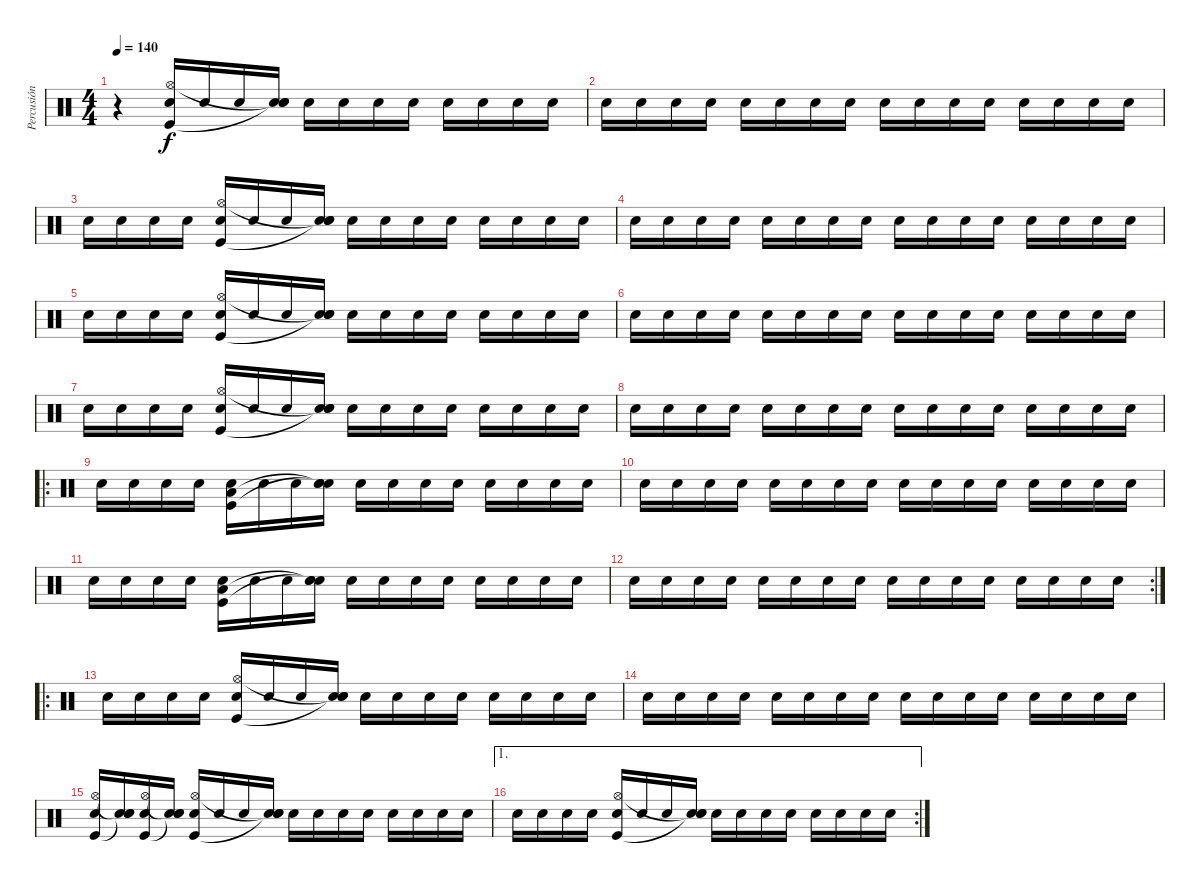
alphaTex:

\track ("Percusión" "Percusión") {instrument percussion}
\staff {score}
\articulation defaults
\ts (4 4)
\tempo 140
\clef neutral
\ks c
r.4{dy f} ("Electric Snare (hit)" "Hi-Hat (open)" "Kick (hit)").16 "Electric Snare (hit)".16 "Electric Snare (hit)".16 ("Electric Snare (hit)" "Snare (hit)"{t} "Snare (hit)"{t}).16 "Electric Snare (hit)".16 "Electric Snare (hit)".16 "Electric Snare (hit)".16 "Electric Snare (hit)".16 "Electric Snare (hit)".16 "Electric Snare (hit)".16 "Electric Snare (hit)".16 "Electric Snare (hit)".16 |
"Electric Snare (hit)".16 "Electric Snare (hit)".16 "Electric Snare (hit)".16 "Electric Snare (hit)".16 "Electric Snare (hit)".16 "Electric Snare (hit)".16 "Electric Snare (hit)".16 "Electric Snare (hit)".16 "Electric Snare (hit)".16 "Electric Snare (hit)".16 "Electric Snare (hit)".16 "Electric Snare (hit)".16 "Electric Snare (hit)".16 "Electric Snare (hit)".16 "Electric Snare (hit)".16 "Electric Snare (hit)".16 |
"Electric Snare (hit)".16 "Electric Snare (hit)".16 "Electric Snare (hit)".16 "Electric Snare (hit)".16 ("Electric Snare (hit)" "Hi-Hat (open)" "Kick (hit)").16 "Electric Snare (hit)".16 "Electric Snare (hit)".16 ("Electric Snare (hit)" "Snare (hit)"{t} "Snare (hit)"{t}).16 "Electric Snare (hit)".16 "Electric Snare (hit)".16 "Electric Snare (hit)".16 "Electric Snare (hit)".16 "Electric Snare (hit)".16 "Electric Snare (hit)".16 "Electric Snare (hit)".16 "Electric Snare (hit)".16 |
"Electric Snare (hit)".16 "Electric Snare (hit)".16 "Electric Snare (hit)".16 "Electric Snare (hit)".16 "Electric Snare (hit)".16 "Electric Snare (hit)".16 "Electric Snare (hit)".16 "Electric Snare (hit)".16 "Electric Snare (hit)".16 "Electric Snare (hit)".16 "Electric Snare (hit)".16 "Electric Snare (hit)".16 "Electric Snare (hit)".16 "Electric Snare (hit)".16 "Electric Snare (hit)".16 "Electric Snare (hit)".16 |
"Electric Snare (hit)".16 "Electric Snare (hit)".16 "Electric Snare (hit)".16 "Electric Snare (hit)".16 ("Electric Snare (hit)" "Hi-Hat (open)" "Kick (hit)").16 "Electric Snare (hit)".16 "Electric Snare (hit)".16 ("Electric Snare (hit)" "Snare (hit)"{t} "Snare (hit)"{t}).16 "Electric Snare (hit)".16 "Electric Snare (hit)".16 "Electric Snare (hit)".16 "Electric Snare (hit)".16 "Electric Snare (hit)".16 "Electric Snare (hit)".16 "Electric Snare (hit)".16 "Electric Snare (hit)".16 |
"Electric Snare (hit)".16 "Electric Snare (hit)".16 "Electric Snare (hit)".16 "Electric Snare (hit)".16 "Electric Snare (hit)".16 "Electric Snare (hit)".16 "Electric Snare (hit)".16 "Electric Snare (hit)".16 "Electric Snare (hit)".16 "Electric Snare (hit)".16 "Electric Snare (hit)".16 "Electric Snare (hit)".16 "Electric Snare (hit)".16 "Electric Snare (hit)".16 "Electric Snare (hit)".16 "Electric Snare (hit)".16 |
"Electric Snare (hit)".16 "Electric Snare (hit)".16 "Electric Snare (hit)".16 "Electric Snare (hit)".16 ("Electric Snare (hit)" "Hi-Hat (open)" "Kick (hit)").16 "Electric Snare (hit)".16 "Electric Snare (hit)".16 ("Electric Snare (hit)" "Snare (hit)"{t} "Snare (hit)"{t}).16 "Electric Snare (hit)".16 "Electric Snare (hit)".16 "Electric Snare (hit)".16 "Electric Snare (hit)".16 "Electric Snare (hit)".16 "Electric Snare (hit)".16 "Electric Snare (hit)".16 "Electric Snare (hit)".16 |
"Electric Snare (hit)".16 "Electric Snare (hit)".16 "Electric Snare (hit)".16 "Electric Snare (hit)".16 "Electric Snare (hit)".16 "Electric Snare (hit)".16 "Electric Snare (hit)".16 "Electric Snare (hit)".16 "Electric Snare (hit)".16 "Electric Snare (hit)".16 "Electric Snare (hit)".16 "Electric Snare (hit)".16 "Electric Snare (hit)".16 "Electric Snare (hit)".16 "Electric Snare (hit)".16 "Electric Snare (hit)".16 |
\ro "Electric Snare (hit)".16 "Electric Snare (hit)".16 "Electric Snare (hit)".16 "Electric Snare (hit)".16
("Electric Snare (hit)" "Low Tom (hit)" "Kick (hit)").16 "Electric Snare (hit)".16 "Electric Snare (hit)".16 ("Electric Snare (hit)" "Snare (hit)"{t} "Snare (hit)"{t}).16 "Electric Snare (hit)".16 "Electric Snare (hit)".16 "Electric Snare (hit)".16 "Electric Snare (hit)".16 "Electric Snare (hit)".16 "Electric Snare (hit)".16 "Electric Snare (hit)".16 "Electric Snare (hit)".16 |
"Electric Snare (hit)".16 "Electric Snare (hit)".16 "Electric Snare (hit)".16 "Electric Snare (hit)".16 "Electric Snare (hit)".16 "Electric Snare (hit)".16 "Electric Snare (hit)".16 "Electric Snare (hit)".16 "Electric Snare (hit)".16 "Electric Snare (hit)".16 "Electric Snare (hit)".16 "Electric Snare (hit)".16 "Electric Snare (hit)".16 "Electric Snare (hit)".16 "Electric Snare (hit)".16 "Electric Snare (hit)".16 |
"Electric Snare (hit)".16 "Electric Snare (hit)".16 "Electric Snare (hit)".16 "Electric Snare (hit)".16 ("Electric Snare (hit)" "Low Tom (hit)" "Kick (hit)").16 "Electric Snare (hit)".16 "Electric Snare (hit)".16 ("Electric Snare (hit)" "Snare (hit)"{t} "Snare (hit)"{t}).16 "Electric Snare (hit)".16 "Electric Snare (hit)".16 "Electric Snare (hit)".16 "Electric Snare (hit)".16 "Electric Snare (hit)".16 "Electric Snare (hit)".16 "Electric Snare (hit)".16 "Electric Snare (hit)".16 |
\rc 2 "Electric Snare (hit)".16 "Electric Snare (hit)".16 "Electric Snare (hit)".16 "Electric Snare (hit)".16 "Electric Snare (hit)".16 "Electric Snare (hit)".16 "Electric Snare (hit)".16 "Electric Snare (hit)".16 "Electric Snare (hit)".16 "Electric Snare (hit)".16 "Electric Snare (hit)".16 "Electric Snare (hit)".16 "Electric Snare (hit)".16 "Electric Snare (hit)".16 "Electric Snare (hit)".16 "Electric Snare (hit)".16
|
\ro "Electric Snare (hit)".16 "Electric Snare (hit)".16 "Electric Snare (hit)".16 "Electric Snare (hit)".16
("Electric Snare (hit)" "Hi-Hat (open)" "Kick (hit)").16 "Electric Snare (hit)".16 "Electric Snare (hit)".16 ("Electric Snare (hit)" "Snare (hit)"{t} "Snare (hit)"{t}).16 "Electric Snare (hit)".16 "Electric Snare (hit)".16 "Electric Snare (hit)".16 "Electric Snare (hit)".16 "Electric Snare (hit)".16 "Electric Snare (hit)".16 "Electric Snare (hit)".16 "Electric Snare (hit)".16 |
"Electric Snare (hit)".16 "Electric Snare (hit)".16 "Electric Snare (hit)".16 "Electric Snare (hit)".16 "Electric Snare (hit)".16 "Electric Snare (hit)".16 "Electric Snare (hit)".16 "Electric Snare (hit)".16 "Electric Snare (hit)".16 "Electric Snare (hit)".16 "Electric Snare (hit)".16 "Electric Snare (hit)".16 "Electric Snare (hit)".16 "Electric Snare (hit)".16 "Electric Snare (hit)".16 "Electric Snare (hit)".16 |
("Electric Snare (hit)" "Hi-Hat (open)" "Kick (hit)").16 ("Electric Snare (hit)" "Snare (hit)"{t} "Snare (hit)"{t}).16 ("Electric Snare (hit)" "Hi-Hat (open)" "Kick (hit)").16 ("Electric Snare (hit)" "Snare (hit)"{t} "Snare (hit)"{t}).16 ("Electric Snare (hit)" "Hi-Hat (open)" "Kick (hit)").16 "Electric Snare (hit)".16 "Electric Snare (hit)".16 ("Electric Snare (hit)" "Snare (hit)"{t} "Snare (hit)"{t}).16 "Electric Snare (hit)".16 "Electric Snare (hit)".16 "Electric Snare (hit)".16 "Electric Snare (hit)".16 "Electric Snare (hit)".16 "Electric Snare (hit)".16 "Electric Snare (hit)".16 "Electric Snare (hit)".16 |
\ae 1
\rc 2 "Electric Snare (hit)".16 "Electric Snare (hit)".16 "Electric Snare (hit)".16 "Electric Snare (hit)".16
("Electric Snare (hit)" "Hi-Hat (open)" "Kick (hit)").16 "Electric Snare (hit)".16 "Electric Snare (hit)".16 ("Electric Snare (hit)" "Snare (hit)"{t} "Snare (hit)"{t}).16 "Electric Snare (hit)".16 "Electric Snare (hit)".16 "Electric Snare (hit)".16 "Electric Snare (hit)".16 "Electric Snare (hit)".16 "Electric Snare (hit)".16 "Electric Snare (hit)".16 "Electric Snare (hit)".16
